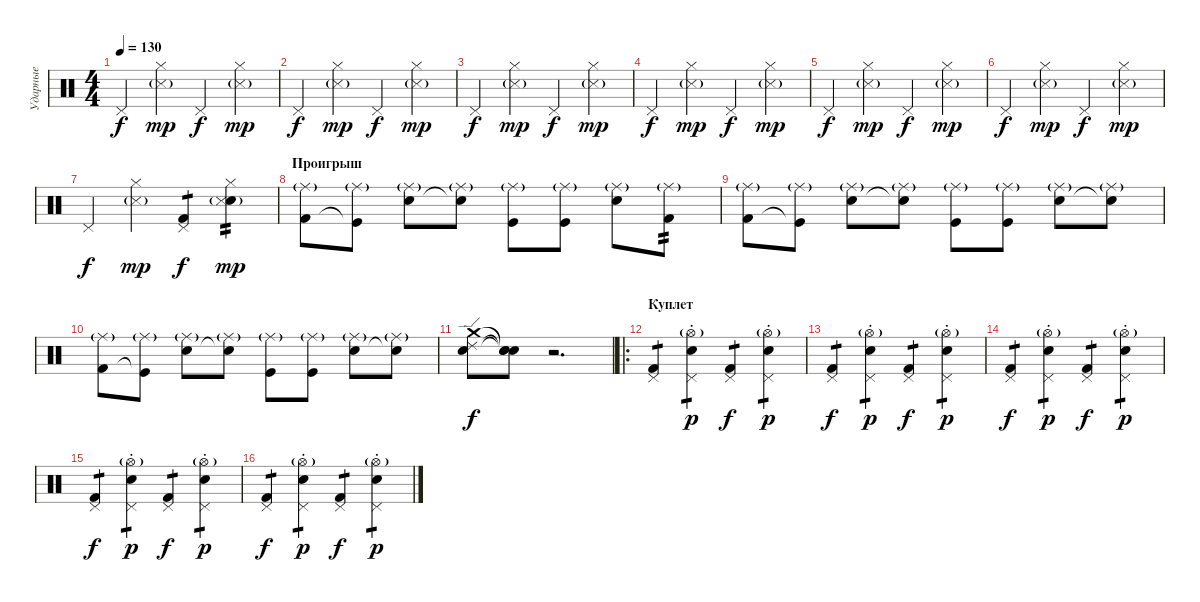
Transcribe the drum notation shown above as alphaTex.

\track ("Ударные" "Ударные") {instrument percussion}
\staff {score}
\articulation defaults
\ts (4 4)
\tempo 130
\clef neutral
\ks c "Pedal Hi-Hat (hit)".4{dy f}
("Metronome (hit)"{g} "Hi-Hat (closed)").4{dy mp} "Pedal Hi-Hat (hit)".4{dy f} ("Metronome (hit)"{g} "Hi-Hat (closed)").4{dy mp} |
"Pedal Hi-Hat (hit)".4{dy f} ("Metronome (hit)"{g} "Hi-Hat (closed)").4{dy mp} "Pedal Hi-Hat (hit)".4{dy f} ("Metronome (hit)"{g} "Hi-Hat (closed)").4{dy mp} |
"Pedal Hi-Hat (hit)".4{dy f} ("Metronome (hit)"{g} "Hi-Hat (closed)").4{dy mp} "Pedal Hi-Hat (hit)".4{dy f} ("Metronome (hit)"{g} "Hi-Hat (closed)").4{dy mp} |
"Pedal Hi-Hat (hit)".4{dy f} ("Metronome (hit)"{g} "Hi-Hat (closed)").4{dy mp} "Pedal Hi-Hat (hit)".4{dy f} ("Metronome (hit)"{g} "Hi-Hat (closed)").4{dy mp} |
"Pedal Hi-Hat (hit)".4{dy f} ("Metronome (hit)"{g} "Hi-Hat (closed)").4{dy mp} "Pedal Hi-Hat (hit)".4{dy f} ("Metronome (hit)"{g} "Hi-Hat (closed)").4{dy mp} |
"Pedal Hi-Hat (hit)".4{dy f} ("Metronome (hit)"{g} "Hi-Hat (closed)").4{dy mp} "Pedal Hi-Hat (hit)".4{dy f} ("Metronome (hit)"{g} "Hi-Hat (closed)").4{dy mp} |
"Pedal Hi-Hat (hit)".4{dy f} ("Metronome (hit)"{g} "Hi-Hat (closed)").4{dy mp} ("Kick (hit) 2" "Pedal Hi-Hat (hit)").4{tp 1 dy f} ("Snare (hit) 2" "Metronome (hit)"{g} "Hi-Hat (closed)").4{tp 2 dy mp} |
\section ("" "Проигрыш")
("Ride (middle)"{g} "Kick (hit) 2").8 ("Ride (middle)"{g} "Kick (hit)"{t}).8 ("Ride (middle)"{g} "Snare (hit) 2").8 ("Ride (middle)"{g} "Snare (hit)"{t}).8 ("Ride (middle)"{g} "Kick (hit)").8 ("Ride (middle)"{g} "Kick (hit)").8 ("Ride (middle)"{g} "Snare (hit) 2").8 ("Ride (middle)"{g} "Kick (hit) 2").8{tp 2} |
("Ride (middle)"{g} "Kick (hit) 2").8 ("Ride (middle)"{g} "Kick (hit)"{t}).8 ("Ride (middle)"{g} "Snare (hit) 2").8 ("Ride (middle)"{g} "Snare (hit)"{t}).8 ("Ride (middle)"{g} "Kick (hit)").8 ("Ride (middle)"{g} "Kick (hit)").8 ("Ride (middle)"{g} "Snare (hit) 2").8 ("Ride (middle)"{g} "Snare (hit)"{t}).8 |
("Ride (middle)"{g} "Kick (hit) 2").8 ("Ride (middle)"{g} "Kick (hit)"{t}).8 ("Ride (middle)"{g} "Snare (hit) 2").8 ("Ride (middle)"{g} "Snare (hit)"{t}).8 ("Ride (middle)"{g} "Kick (hit)").8 ("Ride (middle)"{g} "Kick (hit)").8 ("Ride (middle)"{g} "Snare (hit) 2").8 ("Ride (middle)"{g} "Snare (hit)"{t}).8 |
("Ride (edge) 2" "Crash medium (hit)" "Snare (hit) 2").8{dy f} ("Snare (hit)"{t} "Snare (hit)"{t} "Snare (hit)"{t}).8 r.2{d} |
\ro
\section ("" "Куплет")
("Pedal Hi-Hat (hit)" "Kick (hit) 2").4{tp 1 volume 16} ("Pedal Hi-Hat (hit)" "Hi-Hat (open)"{g st} "Snare (hit) 2").4{tp 1 dy p} ("Pedal Hi-Hat (hit)" "Kick (hit) 2").4{tp 1 dy f} ("Pedal Hi-Hat (hit)" "Hi-Hat (open)"{g st} "Snare (hit) 2").4{tp 1 dy p} |
("Pedal Hi-Hat (hit)" "Kick (hit) 2").4{tp 1 dy f} ("Pedal Hi-Hat (hit)" "Hi-Hat (open)"{g st} "Snare (hit) 2").4{tp 1 dy p} ("Pedal Hi-Hat (hit)" "Kick (hit) 2").4{tp 1 dy f} ("Pedal Hi-Hat (hit)" "Hi-Hat (open)"{g st} "Snare (hit) 2").4{tp 1 dy p} |
("Pedal Hi-Hat (hit)" "Kick (hit) 2").4{tp 1 dy f} ("Pedal Hi-Hat (hit)" "Hi-Hat (open)"{g st} "Snare (hit) 2").4{tp 1 dy p} ("Pedal Hi-Hat (hit)" "Kick (hit) 2").4{tp 1 dy f} ("Pedal Hi-Hat (hit)" "Hi-Hat (open)"{g st} "Snare (hit) 2").4{tp 1 dy p} |
("Pedal Hi-Hat (hit)" "Kick (hit) 2").4{tp 1 dy f} ("Pedal Hi-Hat (hit)" "Hi-Hat (open)"{g st} "Snare (hit) 2").4{tp 1 dy p} ("Pedal Hi-Hat (hit)" "Kick (hit) 2").4{tp 1 dy f} ("Pedal Hi-Hat (hit)" "Hi-Hat (open)"{g st} "Snare (hit) 2").4{tp 1 dy p} |
("Pedal Hi-Hat (hit)" "Kick (hit) 2").4{tp 1 dy f} ("Pedal Hi-Hat (hit)" "Hi-Hat (open)"{g st} "Snare (hit) 2").4{tp 1 dy p} ("Pedal Hi-Hat (hit)" "Kick (hit) 2").4{tp 1 dy f} ("Pedal Hi-Hat (hit)" "Hi-Hat (open)"{g st} "Snare (hit) 2").4{tp 1 dy p}
